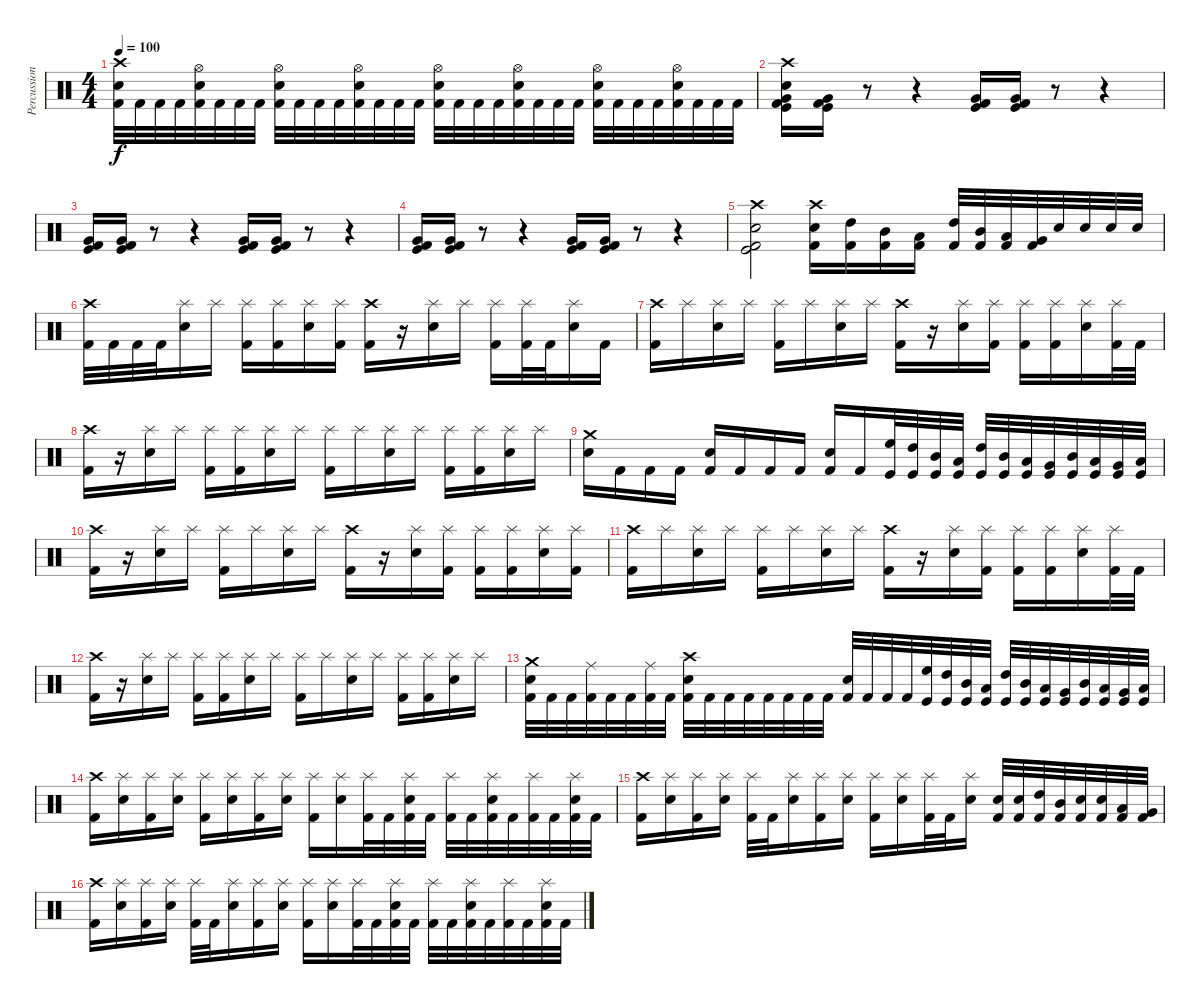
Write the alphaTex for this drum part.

\track ("Percussion" "Percussion") {instrument percussion}
\staff {score}
\articulation defaults
\ts (4 4)
\tempo 100
\clef neutral
\ks c
("Crash high (hit)" "Electric Snare (hit)" "Kick (hit) 2").32{dy f} "Kick (hit) 2".32 "Kick (hit) 2".32 "Kick (hit) 2".32 ("Hi-Hat (open)" "Electric Snare (hit)" "Kick (hit) 2").32 "Kick (hit) 2".32 "Kick (hit) 2".32 "Kick (hit) 2".32 ("Hi-Hat (open)" "Electric Snare (hit)" "Kick (hit) 2").32 "Kick (hit) 2".32 "Kick (hit) 2".32 "Kick (hit) 2".32 ("Hi-Hat (open)" "Electric Snare (hit)" "Kick (hit) 2").32 "Kick (hit) 2".32 "Kick (hit) 2".32 "Kick (hit) 2".32 ("Hi-Hat (open)" "Electric Snare (hit)" "Kick (hit) 2").32 "Kick (hit) 2".32 "Kick (hit) 2".32 "Kick (hit) 2".32 ("Hi-Hat (open)" "Electric Snare (hit)" "Kick (hit) 2").32 "Kick (hit) 2".32 "Kick (hit) 2".32 "Kick (hit) 2".32 ("Hi-Hat (open)" "Electric Snare (hit)" "Kick (hit) 2").32 "Kick (hit) 2".32 "Kick (hit) 2".32 "Kick (hit) 2".32 ("Hi-Hat (open)" "Electric Snare (hit)" "Kick (hit) 2").32 "Kick (hit) 2".32 "Kick (hit) 2".32 "Kick (hit) 2".32 |
("Crash high (hit)" "Electric Snare (hit)" "Very Low Tom (hit)" "Kick (hit) 2" "Kick (hit)").16 ("Very Low Tom (hit)" "Kick (hit) 2" "Kick (hit)").16 r.8 r.4 ("Very Low Tom (hit)" "Kick (hit) 2" "Kick (hit)").16 ("Very Low Tom (hit)" "Kick (hit) 2" "Kick (hit)").16 r.8 r.4 |
("Very Low Tom (hit)" "Kick (hit) 2" "Kick (hit)").16 ("Very Low Tom (hit)" "Kick (hit) 2" "Kick (hit)").16 r.8 r.4 ("Very Low Tom (hit)" "Kick (hit) 2" "Kick (hit)").16 ("Very Low Tom (hit)" "Kick (hit) 2" "Kick (hit)").16 r.8 r.4 |
("Very Low Tom (hit)" "Kick (hit) 2" "Kick (hit)").16 ("Very Low Tom (hit)" "Kick (hit) 2" "Kick (hit)").16 r.8 r.4 ("Very Low Tom (hit)" "Kick (hit) 2" "Kick (hit)").16 ("Very Low Tom (hit)" "Kick (hit) 2" "Kick (hit)").16 r.8 r.4 |
("Crash high (hit)" "Electric Snare (hit)" "Kick (hit) 2" "Kick (hit)").2 ("Crash high (hit)" "Electric Snare (hit)" "Kick (hit) 2").16 ("High Tom (hit)" "Kick (hit) 2").16 ("Mid Tom (hit)" "Kick (hit) 2").16 ("Low Tom (hit)" "Kick (hit) 2").16 ("High Tom (hit)" "Kick (hit) 2").32 ("Mid Tom (hit)" "Kick (hit) 2").32 ("Low Tom (hit)" "Kick (hit) 2").32 ("Very Low Tom (hit)" "Kick (hit) 2").32 "Electric Snare (hit)".32 "Electric Snare (hit)".32 "Electric Snare (hit)".32 "Electric Snare (hit)".32 |
("Kick (hit) 2" "Crash high (hit)").32 "Kick (hit) 2".32 "Kick (hit) 2".32 "Kick (hit) 2".32 ("Electric Snare (hit)" "Splash (hit)").16 "Splash (hit)".16 ("Kick (hit) 2" "Splash (hit)").16 ("Kick (hit) 2" "Splash (hit)").16 ("Electric Snare (hit)" "Splash (hit)").16 ("Kick (hit) 2" "Splash (hit)").16 ("Kick (hit) 2" "Crash high (hit)").16 r.16 ("Electric Snare (hit)" "Splash (hit)").16 "Splash (hit)".16 ("Kick (hit) 2" "Splash (hit)").16 ("Kick (hit) 2" "Splash (hit)").32 "Kick (hit) 2".32 ("Electric Snare (hit)" "Splash (hit)").16 "Kick (hit) 2".16 |
("Kick (hit) 2" "Crash high (hit)").16 "Splash (hit)".16 ("Electric Snare (hit)" "Splash (hit)").16 "Splash (hit)".16 ("Kick (hit) 2" "Splash (hit)").16 "Splash (hit)".16 ("Electric Snare (hit)" "Splash (hit)").16 "Splash (hit)".16 ("Kick (hit) 2" "Crash high (hit)").16 r.16 ("Electric Snare (hit)" "Splash (hit)").16 ("Kick (hit) 2" "Splash (hit)").16 ("Kick (hit) 2" "Splash (hit)").16 ("Kick (hit) 2" "Splash (hit)").16 ("Electric Snare (hit)" "Splash (hit)").16 ("Kick (hit) 2" "Splash (hit)").32 "Kick (hit) 2".32 |
("Kick (hit) 2" "Crash high (hit)").16 r.16 ("Electric Snare (hit)" "Splash (hit)").16 "Splash (hit)".16 ("Kick (hit) 2" "Splash (hit)").16 ("Kick (hit) 2" "Splash (hit)").16 ("Electric Snare (hit)" "Splash (hit)").16 "Splash (hit)".16 ("Kick (hit) 2" "Splash (hit)").16 "Splash (hit)".16 ("Electric Snare (hit)" "Splash (hit)").16 "Splash (hit)".16 ("Kick (hit) 2" "Splash (hit)").16 ("Kick (hit) 2" "Splash (hit)").16 ("Electric Snare (hit)" "Splash (hit)").16 "Splash (hit)".16 |
("Electric Snare (hit)" "Crash medium (hit)").16 "Kick (hit) 2".16 "Kick (hit) 2".16 "Kick (hit) 2".16 ("Electric Snare (hit)" "Kick (hit) 2").16 "Kick (hit) 2".16 "Kick (hit) 2".16 "Kick (hit) 2".16 ("Electric Snare (hit)" "Kick (hit) 2").16 "Kick (hit) 2".16 ("High Floor Tom (hit)" "Kick (hit)").32 ("High Tom (hit)" "Kick (hit)").32 ("Mid Tom (hit)" "Kick (hit)").32 ("Low Tom (hit)" "Kick (hit)").32 ("High Tom (hit)" "Kick (hit)").32 ("Mid Tom (hit)" "Kick (hit)").32 ("Low Tom (hit)" "Kick (hit)").32 ("Very Low Tom (hit)" "Kick (hit)").32 ("Mid Tom (hit)" "Kick (hit)").32 ("Low Tom (hit)" "Kick (hit)").32 ("Very Low Tom (hit)" "Kick (hit)").32 ("Low Floor Tom (hit)" "Kick (hit)").32 |
("Kick (hit) 2" "Crash high (hit)").16 r.16 ("Electric Snare (hit)" "Splash (hit)").16 "Splash (hit)".16 ("Kick (hit) 2" "Splash (hit)").16 "Splash (hit)".16 ("Electric Snare (hit)" "Splash (hit)").16 "Splash (hit)".16 ("Kick (hit) 2" "Crash high (hit)").16 r.16 ("Electric Snare (hit)" "Splash (hit)").16 ("Kick (hit) 2" "Splash (hit)").16 ("Kick (hit) 2" "Splash (hit)").16 ("Kick (hit) 2" "Splash (hit)").16 ("Electric Snare (hit)" "Splash (hit)").16 ("Kick (hit) 2" "Splash (hit)").16 |
("Kick (hit) 2" "Crash high (hit)").16 "Splash (hit)".16 ("Electric Snare (hit)" "Splash (hit)").16 "Splash (hit)".16 ("Kick (hit) 2" "Splash (hit)").16 "Splash (hit)".16 ("Electric Snare (hit)" "Splash (hit)").16 "Splash (hit)".16 ("Kick (hit) 2" "Crash high (hit)").16 r.16 ("Electric Snare (hit)" "Splash (hit)").16 ("Kick (hit) 2" "Splash (hit)").16 ("Kick (hit) 2" "Splash (hit)").16 ("Kick (hit) 2" "Splash (hit)").16 ("Electric Snare (hit)" "Splash (hit)").16 ("Kick (hit) 2" "Splash (hit)").32 "Kick (hit) 2".32 |
("Kick (hit) 2" "Crash high (hit)").16 r.16 ("Electric Snare (hit)" "Splash (hit)").16 "Splash (hit)".16 ("Kick (hit) 2" "Splash (hit)").16 ("Kick (hit) 2" "Splash (hit)").16 ("Electric Snare (hit)" "Splash (hit)").16 "Splash (hit)".16 ("Kick (hit) 2" "Splash (hit)").16 "Splash (hit)".16 ("Electric Snare (hit)" "Splash (hit)").16 "Splash (hit)".16 ("Kick (hit) 2" "Splash (hit)").16 ("Kick (hit) 2" "Splash (hit)").16 ("Electric Snare (hit)" "Splash (hit)").16 "Splash (hit)".16 |
("Crash medium (hit)" "Electric Snare (hit)" "Kick (hit) 2").32 "Kick (hit) 2".32 "Kick (hit) 2".32 ("Ride (middle)" "Kick (hit) 2").32 "Kick (hit) 2".32 "Kick (hit) 2".32 ("Ride (middle)" "Kick (hit) 2").32 "Kick (hit) 2".32 ("Crash high (hit)" "Electric Snare (hit)" "Kick (hit) 2").32 "Kick (hit) 2".32 "Kick (hit) 2".32 "Kick (hit) 2".32 "Kick (hit) 2".32 "Kick (hit) 2".32 "Kick (hit) 2".32 "Kick (hit) 2".32 ("Electric Snare (hit)" "Kick (hit) 2").32 "Kick (hit) 2".32 "Kick (hit) 2".32 "Kick (hit) 2".32 ("High Floor Tom (hit)" "Kick (hit)").32 ("High Tom (hit)" "Kick (hit)").32 ("Mid Tom (hit)" "Kick (hit)").32 ("Low Tom (hit)" "Kick (hit)").32 ("High Tom (hit)" "Kick (hit)").32 ("Mid Tom (hit)" "Kick (hit)").32 ("Low Tom (hit)" "Kick (hit)").32 ("Very Low Tom (hit)" "Kick (hit)").32 ("Mid Tom (hit)" "Kick (hit)").32 ("Low Tom (hit)" "Kick (hit)").32 ("Very Low Tom (hit)" "Kick (hit)").32 ("Low Floor Tom (hit)" "Kick (hit)").32 |
("Crash high (hit)" "Kick (hit) 2").16 ("Splash (hit)" "Electric Snare (hit)").16 ("Splash (hit)" "Kick (hit) 2").16 ("Splash (hit)" "Electric Snare (hit)").16 ("Splash (hit)" "Kick (hit) 2").16 ("Splash (hit)" "Electric Snare (hit)").16 ("Splash (hit)" "Kick (hit) 2").16 ("Splash (hit)" "Electric Snare (hit)").16 ("Splash (hit)" "Kick (hit) 2").16 ("Splash (hit)" "Electric Snare (hit)").16 ("Splash (hit)" "Kick (hit) 2").32 "Kick (hit) 2".32 ("Splash (hit)" "Electric Snare (hit)" "Kick (hit) 2").32 "Kick (hit) 2".32 ("Splash (hit)" "Kick (hit) 2").32 "Kick (hit) 2".32 ("Splash (hit)" "Electric Snare (hit)" "Kick (hit) 2").32 "Kick (hit) 2".32 ("Splash (hit)" "Kick (hit) 2").32 "Kick (hit) 2".32 ("Splash (hit)" "Electric Snare (hit)" "Kick (hit) 2").32 "Kick (hit) 2".32 |
("Crash high (hit)" "Kick (hit) 2").16 ("Splash (hit)" "Electric Snare (hit)").16 ("Splash (hit)" "Kick (hit) 2").16 ("Splash (hit)" "Electric Snare (hit)").16 ("Splash (hit)" "Kick (hit) 2").32 "Kick (hit) 2".32 ("Splash (hit)" "Electric Snare (hit)").16 ("Splash (hit)" "Kick (hit) 2").16 ("Splash (hit)" "Electric Snare (hit)").16 ("Splash (hit)" "Kick (hit) 2").16 ("Splash (hit)" "Electric Snare (hit)").16 ("Splash (hit)" "Kick (hit) 2").32 "Kick (hit) 2".32 ("Splash (hit)" "Electric Snare (hit)").16 ("Electric Snare (hit)" "Kick (hit) 2").32 ("Electric Snare (hit)" "Kick (hit) 2").32 ("High Tom (hit)" "Kick (hit) 2").32 ("Mid Tom (hit)" "Kick (hit) 2").32 ("Electric Snare (hit)" "Kick (hit) 2").32 ("Electric Snare (hit)" "Kick (hit) 2").32 ("Low Tom (hit)" "Kick (hit) 2").32 ("Very Low Tom (hit)" "Kick (hit) 2").32 |
("Crash high (hit)" "Kick (hit) 2").16 ("Splash (hit)" "Electric Snare (hit)").16 ("Splash (hit)" "Kick (hit) 2").16 ("Splash (hit)" "Electric Snare (hit)").16 ("Splash (hit)" "Kick (hit) 2").32 "Kick (hit) 2".32 ("Splash (hit)" "Electric Snare (hit)").16 ("Splash (hit)" "Kick (hit) 2").16 ("Splash (hit)" "Electric Snare (hit)").16 ("Splash (hit)" "Kick (hit) 2").16 ("Splash (hit)" "Electric Snare (hit)").16 ("Splash (hit)" "Kick (hit) 2").32 "Kick (hit) 2".32 ("Splash (hit)" "Electric Snare (hit)" "Kick (hit) 2").32 "Kick (hit) 2".32 ("Splash (hit)" "Kick (hit) 2").32 "Kick (hit) 2".32 ("Splash (hit)" "Electric Snare (hit)" "Kick (hit) 2").32 "Kick (hit) 2".32 ("Splash (hit)" "Kick (hit) 2").32 "Kick (hit) 2".32 ("Splash (hit)" "Electric Snare (hit)" "Kick (hit) 2").32 "Kick (hit) 2".32
